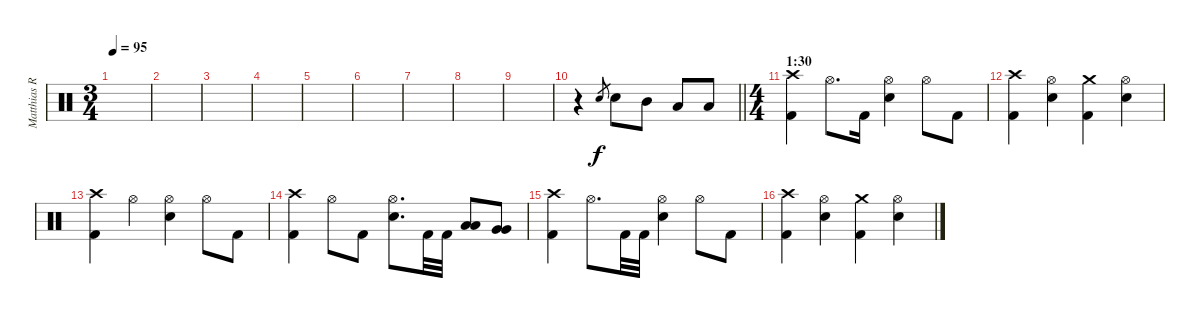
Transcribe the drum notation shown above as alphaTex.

\track ("Matthias R." "Matthias R") {instrument percussion}
\staff {score}
\articulation defaults
\ts (3 4)
\tempo 95
\clef neutral
\ks c
|
|
|
|
|
|
|
|
|
\barLineRight lightlight
r.4 "Snare (hit) 2".8{gr} "Snare (hit) 2".8 "Mid Tom (hit)".8 "Low Tom (hit)".8 "Low Tom (hit)".8 |
\ts (4 4)
\section ("" "1:30")
("Kick (hit) 2" "Crash high (hit)").4 "Hi-Hat (open)".8{d} "Kick (hit) 2".16 ("Snare (hit) 2" "Hi-Hat (open)").4 "Hi-Hat (open)".8 "Kick (hit) 2".8 |
("Kick (hit) 2" "Crash high (hit)").4 ("Snare (hit) 2" "Hi-Hat (open)").4 ("Kick (hit) 2" "Crash medium (hit)").4 ("Snare (hit) 2" "Hi-Hat (open)").4 |
("Kick (hit) 2" "Crash high (hit)").4 "Hi-Hat (open)".4 ("Snare (hit) 2" "Hi-Hat (open)").4 "Hi-Hat (open)".8 "Kick (hit) 2".8 |
("Kick (hit) 2" "Crash high (hit)").4 "Hi-Hat (open)".8 "Kick (hit) 2".8 ("Snare (hit) 2" "Hi-Hat (open)").8{d} "Kick (hit) 2".32 "Kick (hit) 2".32 ("Low Tom (hit)" "Low Tom (hit)").8 ("Very Low Tom (hit)" "Very Low Tom (hit)").8 |
("Kick (hit) 2" "Crash high (hit)").4 "Hi-Hat (open)".8{d} "Kick (hit) 2".32 "Kick (hit) 2".32 ("Snare (hit) 2" "Hi-Hat (open)").4 "Hi-Hat (open)".8 "Kick (hit) 2".8 |
("Kick (hit) 2" "Crash high (hit)").4 ("Snare (hit) 2" "Hi-Hat (open)").4 ("Kick (hit) 2" "Crash medium (hit)").4 ("Snare (hit) 2" "Hi-Hat (open)").4
